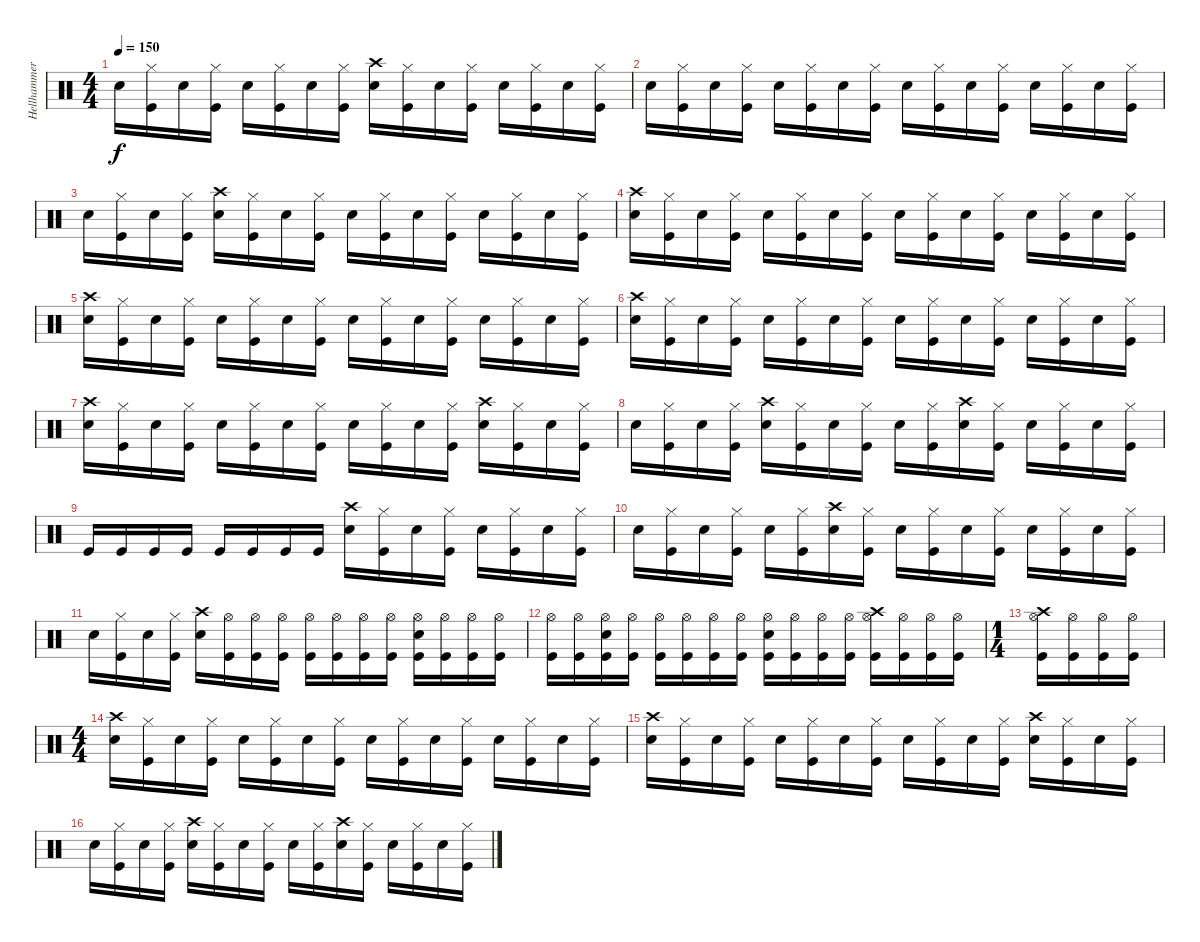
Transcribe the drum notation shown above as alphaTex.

\track ("Hellhammer" "Hellhammer") {instrument percussion}
\staff {score}
\articulation defaults
\ts (4 4)
\tempo 150
\clef neutral
\ks c "Snare (hit) 2".16{dy f}
("Kick (hit)" "Hi-Hat (closed)").16 "Snare (hit) 2".16 ("Kick (hit)" "Hi-Hat (closed)").16 "Snare (hit) 2".16 ("Kick (hit)" "Hi-Hat (closed)").16 "Snare (hit) 2".16 ("Kick (hit)" "Hi-Hat (closed)").16 ("Snare (hit) 2" "Crash high (hit)").16 ("Kick (hit)" "Hi-Hat (closed)").16 "Snare (hit) 2".16 ("Kick (hit)" "Hi-Hat (closed)").16 "Snare (hit) 2".16 ("Kick (hit)" "Hi-Hat (closed)").16 "Snare (hit) 2".16 ("Kick (hit)" "Hi-Hat (closed)").16 |
"Snare (hit) 2".16 ("Kick (hit)" "Hi-Hat (closed)").16 "Snare (hit) 2".16 ("Kick (hit)" "Hi-Hat (closed)").16 "Snare (hit) 2".16 ("Kick (hit)" "Hi-Hat (closed)").16 "Snare (hit) 2".16 ("Kick (hit)" "Hi-Hat (closed)").16 "Snare (hit) 2".16 ("Kick (hit)" "Hi-Hat (closed)").16 "Snare (hit) 2".16 ("Kick (hit)" "Hi-Hat (closed)").16 "Snare (hit) 2".16 ("Kick (hit)" "Hi-Hat (closed)").16 "Snare (hit) 2".16 ("Kick (hit)" "Hi-Hat (closed)").16 |
"Snare (hit) 2".16 ("Kick (hit)" "Hi-Hat (closed)").16 "Snare (hit) 2".16 ("Kick (hit)" "Hi-Hat (closed)").16 ("Snare (hit) 2" "Crash high (hit)").16 ("Kick (hit)" "Hi-Hat (closed)").16 "Snare (hit) 2".16 ("Kick (hit)" "Hi-Hat (closed)").16 "Snare (hit) 2".16 ("Kick (hit)" "Hi-Hat (closed)").16 "Snare (hit) 2".16 ("Kick (hit)" "Hi-Hat (closed)").16 "Snare (hit) 2".16 ("Kick (hit)" "Hi-Hat (closed)").16 "Snare (hit) 2".16 ("Kick (hit)" "Hi-Hat (closed)").16 |
("Snare (hit) 2" "Crash high (hit)").16 ("Kick (hit)" "Hi-Hat (closed)").16 "Snare (hit) 2".16 ("Kick (hit)" "Hi-Hat (closed)").16 "Snare (hit) 2".16 ("Kick (hit)" "Hi-Hat (closed)").16 "Snare (hit) 2".16 ("Kick (hit)" "Hi-Hat (closed)").16 "Snare (hit) 2".16 ("Kick (hit)" "Hi-Hat (closed)").16 "Snare (hit) 2".16 ("Kick (hit)" "Hi-Hat (closed)").16 "Snare (hit) 2".16 ("Kick (hit)" "Hi-Hat (closed)").16 "Snare (hit) 2".16 ("Kick (hit)" "Hi-Hat (closed)").16 |
("Snare (hit) 2" "Crash high (hit)").16 ("Kick (hit)" "Hi-Hat (closed)").16 "Snare (hit) 2".16 ("Kick (hit)" "Hi-Hat (closed)").16 "Snare (hit) 2".16 ("Kick (hit)" "Hi-Hat (closed)").16 "Snare (hit) 2".16 ("Kick (hit)" "Hi-Hat (closed)").16 "Snare (hit) 2".16 ("Kick (hit)" "Hi-Hat (closed)").16 "Snare (hit) 2".16 ("Kick (hit)" "Hi-Hat (closed)").16 "Snare (hit) 2".16 ("Kick (hit)" "Hi-Hat (closed)").16 "Snare (hit) 2".16 ("Kick (hit)" "Hi-Hat (closed)").16 |
("Snare (hit) 2" "Crash high (hit)").16 ("Kick (hit)" "Hi-Hat (closed)").16 "Snare (hit) 2".16 ("Kick (hit)" "Hi-Hat (closed)").16 "Snare (hit) 2".16 ("Kick (hit)" "Hi-Hat (closed)").16 "Snare (hit) 2".16 ("Kick (hit)" "Hi-Hat (closed)").16 "Snare (hit) 2".16 ("Kick (hit)" "Hi-Hat (closed)").16 "Snare (hit) 2".16 ("Kick (hit)" "Hi-Hat (closed)").16 "Snare (hit) 2".16 ("Kick (hit)" "Hi-Hat (closed)").16 "Snare (hit) 2".16 ("Kick (hit)" "Hi-Hat (closed)").16 |
("Snare (hit) 2" "Crash high (hit)").16 ("Kick (hit)" "Hi-Hat (closed)").16 "Snare (hit) 2".16 ("Kick (hit)" "Hi-Hat (closed)").16 "Snare (hit) 2".16 ("Kick (hit)" "Hi-Hat (closed)").16 "Snare (hit) 2".16 ("Kick (hit)" "Hi-Hat (closed)").16 "Snare (hit) 2".16 ("Kick (hit)" "Hi-Hat (closed)").16 "Snare (hit) 2".16 ("Kick (hit)" "Hi-Hat (closed)").16 ("Snare (hit) 2" "Crash high (hit)").16 ("Kick (hit)" "Hi-Hat (closed)").16 "Snare (hit) 2".16 ("Kick (hit)" "Hi-Hat (closed)").16 |
"Snare (hit) 2".16 ("Kick (hit)" "Hi-Hat (closed)").16 "Snare (hit) 2".16 ("Kick (hit)" "Hi-Hat (closed)").16 ("Snare (hit) 2" "Crash high (hit)").16 ("Kick (hit)" "Hi-Hat (closed)").16 "Snare (hit) 2".16 ("Kick (hit)" "Hi-Hat (closed)").16 "Snare (hit) 2".16 ("Kick (hit)" "Hi-Hat (closed)").16 ("Snare (hit) 2" "Crash high (hit)").16 ("Kick (hit)" "Hi-Hat (closed)").16 "Snare (hit) 2".16 ("Kick (hit)" "Hi-Hat (closed)").16 "Snare (hit) 2".16 ("Kick (hit)" "Hi-Hat (closed)").16 |
"Kick (hit)".16 "Kick (hit)".16 "Kick (hit)".16 "Kick (hit)".16 "Kick (hit)".16 "Kick (hit)".16 "Kick (hit)".16 "Kick (hit)".16 ("Snare (hit) 2" "Crash high (hit)").16 ("Kick (hit)" "Hi-Hat (closed)").16 "Snare (hit) 2".16 ("Kick (hit)" "Hi-Hat (closed)").16 "Snare (hit) 2".16 ("Kick (hit)" "Hi-Hat (closed)").16 "Snare (hit) 2".16 ("Kick (hit)" "Hi-Hat (closed)").16 |
"Snare (hit) 2".16 ("Kick (hit)" "Hi-Hat (closed)").16 "Snare (hit) 2".16 ("Kick (hit)" "Hi-Hat (closed)").16 "Snare (hit) 2".16 ("Kick (hit)" "Hi-Hat (closed)").16 ("Snare (hit) 2" "Crash high (hit)").16 ("Kick (hit)" "Hi-Hat (closed)").16 "Snare (hit) 2".16 ("Kick (hit)" "Hi-Hat (closed)").16 "Snare (hit) 2".16 ("Kick (hit)" "Hi-Hat (closed)").16 "Snare (hit) 2".16 ("Kick (hit)" "Hi-Hat (closed)").16 "Snare (hit) 2".16 ("Kick (hit)" "Hi-Hat (closed)").16 |
"Snare (hit) 2".16 ("Kick (hit)" "Hi-Hat (closed)").16 "Snare (hit) 2".16 ("Kick (hit)" "Hi-Hat (closed)").16 ("Snare (hit) 2" "Crash high (hit)").16 ("Kick (hit)" "Hi-Hat (open)").16 ("Kick (hit)" "Hi-Hat (open)").16 ("Kick (hit)" "Hi-Hat (open)").16 ("Kick (hit)" "Hi-Hat (open)").16 ("Kick (hit)" "Hi-Hat (open)").16 ("Kick (hit)" "Hi-Hat (open)").16 ("Kick (hit)" "Hi-Hat (open)").16 ("Kick (hit)" "Hi-Hat (open)" "Snare (hit) 2").16 ("Kick (hit)" "Hi-Hat (open)").16 ("Kick (hit)" "Hi-Hat (open)").16 ("Kick (hit)" "Hi-Hat (open)").16 |
("Kick (hit)" "Hi-Hat (open)").16 ("Kick (hit)" "Hi-Hat (open)").16 ("Kick (hit)" "Hi-Hat (open)" "Snare (hit) 2").16 ("Kick (hit)" "Hi-Hat (open)").16 ("Kick (hit)" "Hi-Hat (open)").16 ("Kick (hit)" "Hi-Hat (open)").16 ("Kick (hit)" "Hi-Hat (open)").16 ("Kick (hit)" "Hi-Hat (open)").16 ("Kick (hit)" "Hi-Hat (open)" "Snare (hit) 2").16 ("Kick (hit)" "Hi-Hat (open)").16 ("Kick (hit)" "Hi-Hat (open)").16 ("Kick (hit)" "Hi-Hat (open)").16 ("Kick (hit)" "Hi-Hat (open)" "Crash high (hit)").16 ("Kick (hit)" "Hi-Hat (open)").16 ("Kick (hit)" "Hi-Hat (open)").16 ("Kick (hit)" "Hi-Hat (open)").16 |
\ts (1 4)
("Kick (hit)" "Hi-Hat (open)" "Crash high (hit)").16 ("Kick (hit)" "Hi-Hat (open)").16 ("Kick (hit)" "Hi-Hat (open)").16 ("Kick (hit)" "Hi-Hat (open)").16 |
\ts (4 4)
("Snare (hit) 2" "Crash high (hit)").16 ("Kick (hit)" "Hi-Hat (closed)").16 "Snare (hit) 2".16 ("Kick (hit)" "Hi-Hat (closed)").16 "Snare (hit) 2".16 ("Kick (hit)" "Hi-Hat (closed)").16 "Snare (hit) 2".16 ("Kick (hit)" "Hi-Hat (closed)").16 "Snare (hit) 2".16 ("Kick (hit)" "Hi-Hat (closed)").16 "Snare (hit) 2".16 ("Kick (hit)" "Hi-Hat (closed)").16 "Snare (hit) 2".16 ("Kick (hit)" "Hi-Hat (closed)").16 "Snare (hit) 2".16 ("Kick (hit)" "Hi-Hat (closed)").16 |
("Snare (hit) 2" "Crash high (hit)").16 ("Kick (hit)" "Hi-Hat (closed)").16 "Snare (hit) 2".16 ("Kick (hit)" "Hi-Hat (closed)").16 "Snare (hit) 2".16 ("Kick (hit)" "Hi-Hat (closed)").16 "Snare (hit) 2".16 ("Kick (hit)" "Hi-Hat (closed)").16 "Snare (hit) 2".16 ("Kick (hit)" "Hi-Hat (closed)").16 "Snare (hit) 2".16 ("Kick (hit)" "Hi-Hat (closed)").16 ("Snare (hit) 2" "Crash high (hit)").16 ("Kick (hit)" "Hi-Hat (closed)").16 "Snare (hit) 2".16 ("Kick (hit)" "Hi-Hat (closed)").16 |
"Snare (hit) 2".16 ("Kick (hit)" "Hi-Hat (closed)").16 "Snare (hit) 2".16 ("Kick (hit)" "Hi-Hat (closed)").16 ("Snare (hit) 2" "Crash high (hit)").16 ("Kick (hit)" "Hi-Hat (closed)").16 "Snare (hit) 2".16 ("Kick (hit)" "Hi-Hat (closed)").16 "Snare (hit) 2".16 ("Kick (hit)" "Hi-Hat (closed)").16 ("Snare (hit) 2" "Crash high (hit)").16 ("Kick (hit)" "Hi-Hat (closed)").16 "Snare (hit) 2".16 ("Kick (hit)" "Hi-Hat (closed)").16 "Snare (hit) 2".16 ("Kick (hit)" "Hi-Hat (closed)").16
